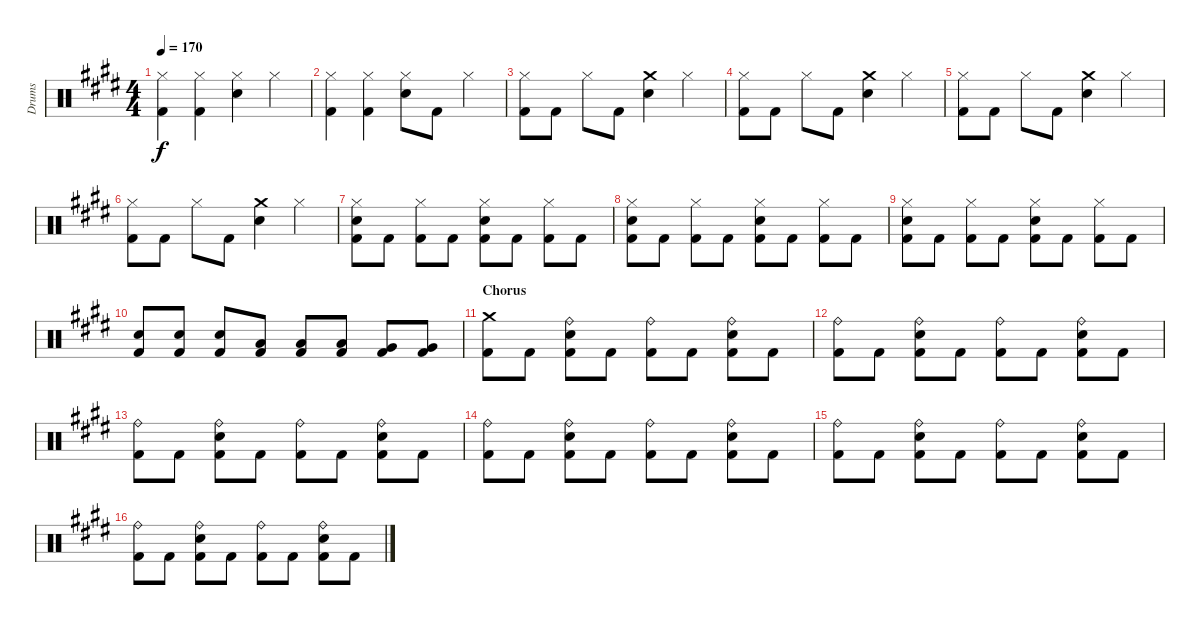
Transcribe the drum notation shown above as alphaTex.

\track ("Drums" "Drums") {instrument percussion}
\staff {score}
\articulation defaults
\ts (4 4)
\tempo 170
\clef neutral
\ks c#minor
("Hi-Hat (closed)" "Kick (hit) 2").4{dy f} ("Hi-Hat (closed)" "Kick (hit) 2").4 ("Hi-Hat (closed)" "Electric Snare (hit)").4 "Hi-Hat (closed)".4 |
("Hi-Hat (closed)" "Kick (hit) 2").4 ("Hi-Hat (closed)" "Kick (hit) 2").4 ("Hi-Hat (closed)" "Electric Snare (hit)").8 "Kick (hit) 2".8 "Hi-Hat (closed)".4 |
("Hi-Hat (closed)" "Kick (hit) 2").8 "Kick (hit) 2".8 "Hi-Hat (closed)".8 "Kick (hit) 2".8 ("Crash medium (hit)" "Electric Snare (hit)").4 "Hi-Hat (closed)".4 |
("Hi-Hat (closed)" "Kick (hit) 2").8 "Kick (hit) 2".8 "Hi-Hat (closed)".8 "Kick (hit) 2".8 ("Crash medium (hit)" "Electric Snare (hit)").4 "Hi-Hat (closed)".4 |
("Hi-Hat (closed)" "Kick (hit) 2").8 "Kick (hit) 2".8 "Hi-Hat (closed)".8 "Kick (hit) 2".8 ("Crash medium (hit)" "Electric Snare (hit)").4 "Hi-Hat (closed)".4 |
("Hi-Hat (closed)" "Kick (hit) 2").8 "Kick (hit) 2".8 "Hi-Hat (closed)".8 "Kick (hit) 2".8 ("Crash medium (hit)" "Electric Snare (hit)").4 "Hi-Hat (closed)".4 |
("Hi-Hat (closed)" "Electric Snare (hit)" "Kick (hit) 2").8 "Kick (hit) 2".8 ("Hi-Hat (closed)" "Kick (hit) 2").8 "Kick (hit) 2".8 ("Hi-Hat (closed)" "Electric Snare (hit)" "Kick (hit) 2").8 "Kick (hit) 2".8 ("Hi-Hat (closed)" "Kick (hit) 2").8 "Kick (hit) 2".8 |
("Hi-Hat (closed)" "Electric Snare (hit)" "Kick (hit) 2").8 "Kick (hit) 2".8 ("Hi-Hat (closed)" "Kick (hit) 2").8 "Kick (hit) 2".8 ("Hi-Hat (closed)" "Electric Snare (hit)" "Kick (hit) 2").8 "Kick (hit) 2".8 ("Hi-Hat (closed)" "Kick (hit) 2").8 "Kick (hit) 2".8 |
("Hi-Hat (closed)" "Electric Snare (hit)" "Kick (hit) 2").8 "Kick (hit) 2".8 ("Hi-Hat (closed)" "Kick (hit) 2").8 "Kick (hit) 2".8 ("Hi-Hat (closed)" "Electric Snare (hit)" "Kick (hit) 2").8 "Kick (hit) 2".8 ("Hi-Hat (closed)" "Kick (hit) 2").8 "Kick (hit) 2".8 |
("Electric Snare (hit)" "Kick (hit) 2").8 ("Electric Snare (hit)" "Kick (hit) 2").8 ("Electric Snare (hit)" "Kick (hit) 2").8 ("Low Tom (hit)" "Kick (hit) 2").8 ("Low Tom (hit)" "Kick (hit) 2").8 ("Low Tom (hit)" "Kick (hit) 2").8 ("Very Low Tom (hit)" "Kick (hit) 2").8 ("Very Low Tom (hit)" "Kick (hit) 2").8 |
\section ("" "Chorus")
("Crash medium (hit)" "Kick (hit) 2").8 "Kick (hit) 2".8 ("Ride (bell)" "Electric Snare (hit)" "Kick (hit) 2").8 "Kick (hit) 2".8 ("Ride (bell)" "Kick (hit) 2").8 "Kick (hit) 2".8 ("Ride (bell)" "Electric Snare (hit)" "Kick (hit) 2").8 "Kick (hit) 2".8 |
("Ride (bell)" "Kick (hit) 2").8 "Kick (hit) 2".8 ("Ride (bell)" "Electric Snare (hit)" "Kick (hit) 2").8 "Kick (hit) 2".8 ("Ride (bell)" "Kick (hit) 2").8 "Kick (hit) 2".8 ("Ride (bell)" "Electric Snare (hit)" "Kick (hit) 2").8 "Kick (hit) 2".8 |
("Ride (bell)" "Kick (hit) 2").8 "Kick (hit) 2".8 ("Ride (bell)" "Electric Snare (hit)" "Kick (hit) 2").8 "Kick (hit) 2".8 ("Ride (bell)" "Kick (hit) 2").8 "Kick (hit) 2".8 ("Ride (bell)" "Electric Snare (hit)" "Kick (hit) 2").8 "Kick (hit) 2".8 |
("Ride (bell)" "Kick (hit) 2").8 "Kick (hit) 2".8 ("Ride (bell)" "Electric Snare (hit)" "Kick (hit) 2").8 "Kick (hit) 2".8 ("Ride (bell)" "Kick (hit) 2").8 "Kick (hit) 2".8 ("Ride (bell)" "Electric Snare (hit)" "Kick (hit) 2").8 "Kick (hit) 2".8 |
("Ride (bell)" "Kick (hit) 2").8 "Kick (hit) 2".8 ("Ride (bell)" "Electric Snare (hit)" "Kick (hit) 2").8 "Kick (hit) 2".8 ("Ride (bell)" "Kick (hit) 2").8 "Kick (hit) 2".8 ("Ride (bell)" "Electric Snare (hit)" "Kick (hit) 2").8 "Kick (hit) 2".8 |
("Ride (bell)" "Kick (hit) 2").8 "Kick (hit) 2".8 ("Ride (bell)" "Electric Snare (hit)" "Kick (hit) 2").8 "Kick (hit) 2".8 ("Ride (bell)" "Kick (hit) 2").8 "Kick (hit) 2".8 ("Ride (bell)" "Electric Snare (hit)" "Kick (hit) 2").8 "Kick (hit) 2".8
